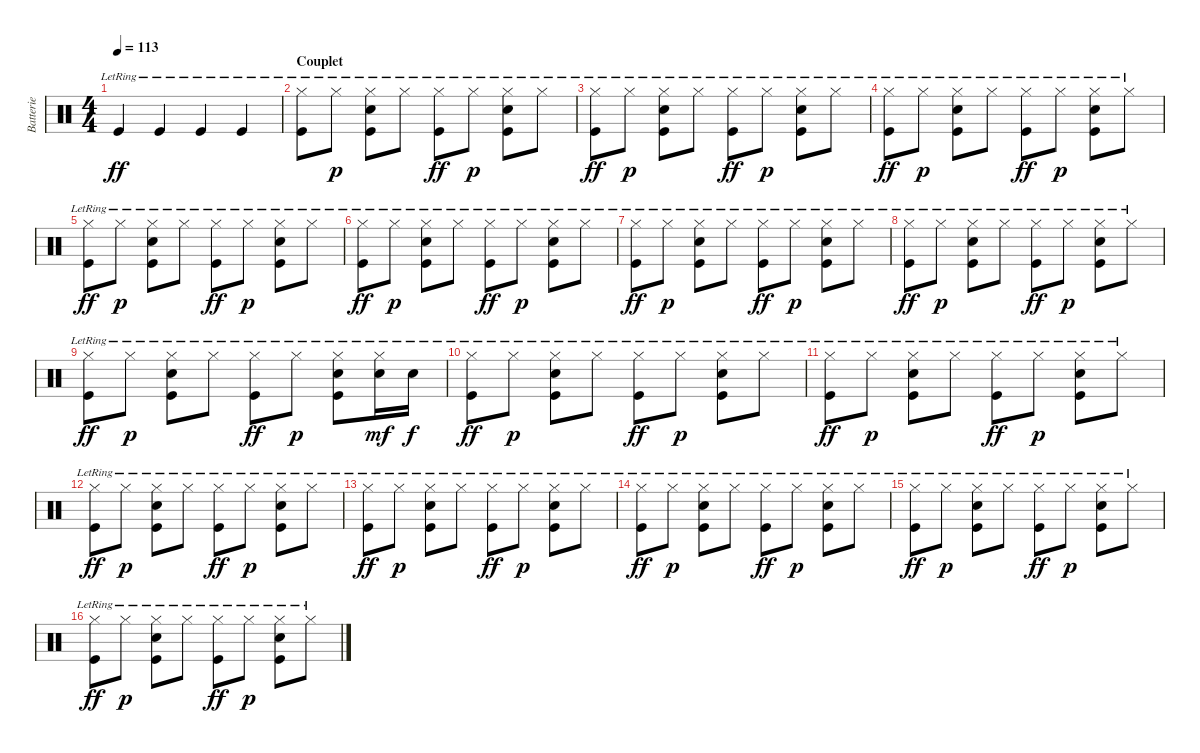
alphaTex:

\track ("Batterie" "Batterie") {instrument percussion}
\staff {score}
\articulation defaults
\ts (4 4)
\tempo 113
\clef neutral
\ks c "Kick (hit)"{lr}.4{dy ff} "Kick (hit)"{lr}.4 "Kick (hit)"{lr}.4 "Kick (hit)"{lr}.4
|
\section ("" "Couplet")
("Hi-Hat (closed)"{lr} "Kick (hit)"{lr}).8 "Hi-Hat (closed)"{lr}.8{dy p} ("Hi-Hat (closed)"{lr} "Snare (hit) 2"{lr} "Kick (hit)"{lr}).8 "Hi-Hat (closed)"{lr}.8 ("Hi-Hat (closed)"{lr} "Kick (hit)"{lr}).8{dy ff} "Hi-Hat (closed)"{lr}.8{dy p} ("Hi-Hat (closed)"{lr} "Snare (hit) 2"{lr} "Kick (hit)"{lr}).8 "Hi-Hat (closed)"{lr}.8 |
("Hi-Hat (closed)"{lr} "Kick (hit)"{lr}).8{dy ff} "Hi-Hat (closed)"{lr}.8{dy p} ("Hi-Hat (closed)"{lr} "Snare (hit) 2"{lr} "Kick (hit)"{lr}).8 "Hi-Hat (closed)"{lr}.8 ("Hi-Hat (closed)"{lr} "Kick (hit)"{lr}).8{dy ff} "Hi-Hat (closed)"{lr}.8{dy p} ("Hi-Hat (closed)"{lr} "Snare (hit) 2"{lr} "Kick (hit)"{lr}).8 "Hi-Hat (closed)"{lr}.8 |
("Hi-Hat (closed)"{lr} "Kick (hit)"{lr}).8{dy ff} "Hi-Hat (closed)"{lr}.8{dy p} ("Hi-Hat (closed)"{lr} "Snare (hit) 2"{lr} "Kick (hit)"{lr}).8 "Hi-Hat (closed)"{lr}.8 ("Hi-Hat (closed)"{lr} "Kick (hit)"{lr}).8{dy ff} "Hi-Hat (closed)"{lr}.8{dy p} ("Hi-Hat (closed)"{lr} "Snare (hit) 2"{lr} "Kick (hit)"{lr}).8 "Hi-Hat (closed)"{lr}.8 |
("Hi-Hat (closed)"{lr} "Kick (hit)"{lr}).8{dy ff} "Hi-Hat (closed)"{lr}.8{dy p} ("Hi-Hat (closed)"{lr} "Snare (hit) 2"{lr} "Kick (hit)"{lr}).8 "Hi-Hat (closed)"{lr}.8 ("Hi-Hat (closed)"{lr} "Kick (hit)"{lr}).8{dy ff} "Hi-Hat (closed)"{lr}.8{dy p} ("Hi-Hat (closed)"{lr} "Snare (hit) 2"{lr} "Kick (hit)"{lr}).8 "Hi-Hat (closed)"{lr}.8 |
("Hi-Hat (closed)"{lr} "Kick (hit)"{lr}).8{dy ff} "Hi-Hat (closed)"{lr}.8{dy p} ("Hi-Hat (closed)"{lr} "Snare (hit) 2"{lr} "Kick (hit)"{lr}).8 "Hi-Hat (closed)"{lr}.8 ("Hi-Hat (closed)"{lr} "Kick (hit)"{lr}).8{dy ff} "Hi-Hat (closed)"{lr}.8{dy p} ("Hi-Hat (closed)"{lr} "Snare (hit) 2"{lr} "Kick (hit)"{lr}).8 "Hi-Hat (closed)"{lr}.8 |
("Hi-Hat (closed)"{lr} "Kick (hit)"{lr}).8{dy ff} "Hi-Hat (closed)"{lr}.8{dy p} ("Hi-Hat (closed)"{lr} "Snare (hit) 2"{lr} "Kick (hit)"{lr}).8 "Hi-Hat (closed)"{lr}.8 ("Hi-Hat (closed)"{lr} "Kick (hit)"{lr}).8{dy ff} "Hi-Hat (closed)"{lr}.8{dy p} ("Hi-Hat (closed)"{lr} "Snare (hit) 2"{lr} "Kick (hit)"{lr}).8 "Hi-Hat (closed)"{lr}.8 |
("Hi-Hat (closed)"{lr} "Kick (hit)"{lr}).8{dy ff} "Hi-Hat (closed)"{lr}.8{dy p} ("Hi-Hat (closed)"{lr} "Snare (hit) 2"{lr} "Kick (hit)"{lr}).8 "Hi-Hat (closed)"{lr}.8 ("Hi-Hat (closed)"{lr} "Kick (hit)"{lr}).8{dy ff} "Hi-Hat (closed)"{lr}.8{dy p} ("Hi-Hat (closed)"{lr} "Snare (hit) 2"{lr} "Kick (hit)"{lr}).8 "Hi-Hat (closed)"{lr}.8 |
("Hi-Hat (closed)"{lr} "Kick (hit)"{lr}).8{dy ff} "Hi-Hat (closed)"{lr}.8{dy p} ("Hi-Hat (closed)"{lr} "Snare (hit) 2"{lr} "Kick (hit)"{lr}).8 "Hi-Hat (closed)"{lr}.8 ("Hi-Hat (closed)"{lr} "Kick (hit)"{lr}).8{dy ff} "Hi-Hat (closed)"{lr}.8{dy p} ("Hi-Hat (closed)"{lr} "Snare (hit) 2"{lr} "Kick (hit)"{lr}).8 ("Hi-Hat (closed)"{lr} "Snare (hit) 2"{lr}).16{dy mf} "Snare (hit) 2"{lr}.16{dy f} |
("Hi-Hat (closed)"{lr} "Kick (hit)"{lr}).8{dy ff} "Hi-Hat (closed)"{lr}.8{dy p} ("Hi-Hat (closed)"{lr} "Snare (hit) 2"{lr} "Kick (hit)"{lr}).8 "Hi-Hat (closed)"{lr}.8 ("Hi-Hat (closed)"{lr} "Kick (hit)"{lr}).8{dy ff} "Hi-Hat (closed)"{lr}.8{dy p} ("Hi-Hat (closed)"{lr} "Snare (hit) 2"{lr} "Kick (hit)"{lr}).8 "Hi-Hat (closed)"{lr}.8 |
("Hi-Hat (closed)"{lr} "Kick (hit)"{lr}).8{dy ff} "Hi-Hat (closed)"{lr}.8{dy p} ("Hi-Hat (closed)"{lr} "Snare (hit) 2"{lr} "Kick (hit)"{lr}).8 "Hi-Hat (closed)"{lr}.8 ("Hi-Hat (closed)"{lr} "Kick (hit)"{lr}).8{dy ff} "Hi-Hat (closed)"{lr}.8{dy p} ("Hi-Hat (closed)"{lr} "Snare (hit) 2"{lr} "Kick (hit)"{lr}).8 "Hi-Hat (closed)"{lr}.8 |
("Hi-Hat (closed)"{lr} "Kick (hit)"{lr}).8{dy ff} "Hi-Hat (closed)"{lr}.8{dy p} ("Hi-Hat (closed)"{lr} "Snare (hit) 2"{lr} "Kick (hit)"{lr}).8 "Hi-Hat (closed)"{lr}.8 ("Hi-Hat (closed)"{lr} "Kick (hit)"{lr}).8{dy ff} "Hi-Hat (closed)"{lr}.8{dy p} ("Hi-Hat (closed)"{lr} "Snare (hit) 2"{lr} "Kick (hit)"{lr}).8 "Hi-Hat (closed)"{lr}.8 |
("Hi-Hat (closed)"{lr} "Kick (hit)"{lr}).8{dy ff} "Hi-Hat (closed)"{lr}.8{dy p} ("Hi-Hat (closed)"{lr} "Snare (hit) 2"{lr} "Kick (hit)"{lr}).8 "Hi-Hat (closed)"{lr}.8 ("Hi-Hat (closed)"{lr} "Kick (hit)"{lr}).8{dy ff} "Hi-Hat (closed)"{lr}.8{dy p} ("Hi-Hat (closed)"{lr} "Snare (hit) 2"{lr} "Kick (hit)"{lr}).8 "Hi-Hat (closed)"{lr}.8 |
("Hi-Hat (closed)"{lr} "Kick (hit)"{lr}).8{dy ff} "Hi-Hat (closed)"{lr}.8{dy p} ("Hi-Hat (closed)"{lr} "Snare (hit) 2"{lr} "Kick (hit)"{lr}).8 "Hi-Hat (closed)"{lr}.8 ("Hi-Hat (closed)"{lr} "Kick (hit)"{lr}).8{dy ff} "Hi-Hat (closed)"{lr}.8{dy p} ("Hi-Hat (closed)"{lr} "Snare (hit) 2"{lr} "Kick (hit)"{lr}).8 "Hi-Hat (closed)"{lr}.8 |
("Hi-Hat (closed)"{lr} "Kick (hit)"{lr}).8{dy ff} "Hi-Hat (closed)"{lr}.8{dy p} ("Hi-Hat (closed)"{lr} "Snare (hit) 2"{lr} "Kick (hit)"{lr}).8 "Hi-Hat (closed)"{lr}.8 ("Hi-Hat (closed)"{lr} "Kick (hit)"{lr}).8{dy ff} "Hi-Hat (closed)"{lr}.8{dy p} ("Hi-Hat (closed)"{lr} "Snare (hit) 2"{lr} "Kick (hit)"{lr}).8 "Hi-Hat (closed)"{lr}.8 |
("Hi-Hat (closed)"{lr} "Kick (hit)"{lr}).8{dy ff} "Hi-Hat (closed)"{lr}.8{dy p} ("Hi-Hat (closed)"{lr} "Snare (hit) 2"{lr} "Kick (hit)"{lr}).8 "Hi-Hat (closed)"{lr}.8 ("Hi-Hat (closed)"{lr} "Kick (hit)"{lr}).8{dy ff} "Hi-Hat (closed)"{lr}.8{dy p} ("Hi-Hat (closed)"{lr} "Snare (hit) 2"{lr} "Kick (hit)"{lr}).8 "Hi-Hat (closed)"{lr}.8
